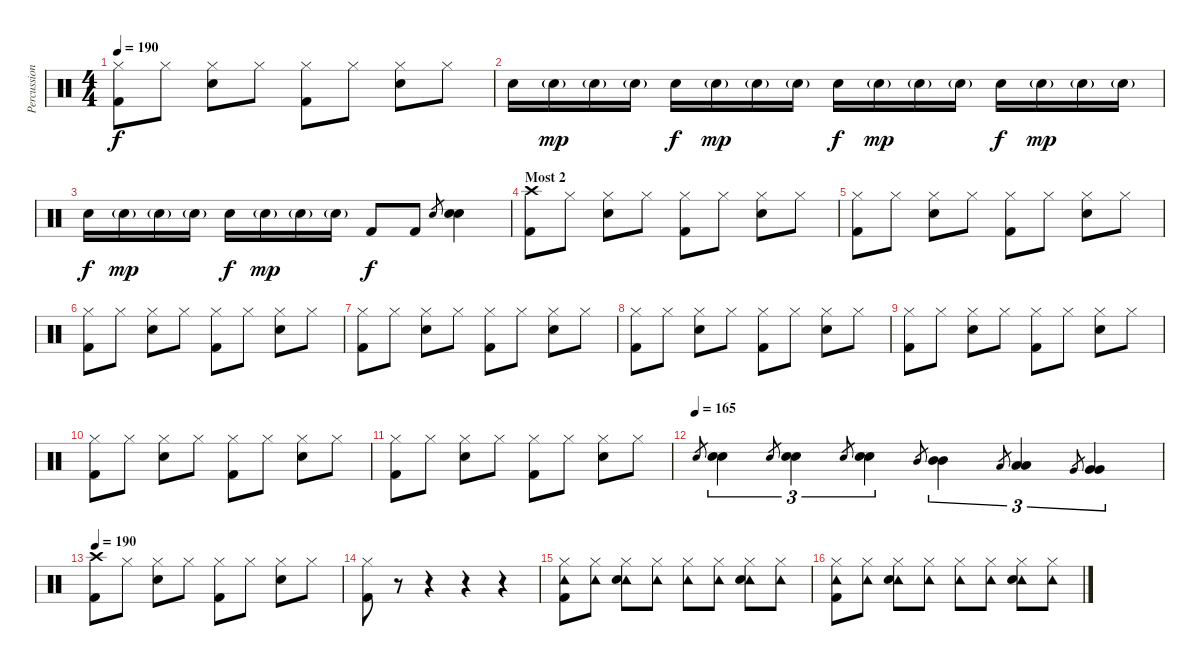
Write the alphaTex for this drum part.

\track ("Percussion" "Percussion") {instrument percussion}
\staff {score}
\articulation defaults
\ts (4 4)
\tempo 190
\clef neutral
\ks c
("Hi-Hat (closed)" "Kick (hit) 2").8{dy f} "Hi-Hat (closed)".8 ("Hi-Hat (closed)" "Electric Snare (hit)").8 "Hi-Hat (closed)".8 ("Hi-Hat (closed)" "Kick (hit) 2").8 "Hi-Hat (closed)".8 ("Hi-Hat (closed)" "Electric Snare (hit)").8 "Hi-Hat (closed)".8 |
"Electric Snare (hit)".16 "Electric Snare (hit)"{g}.16{dy mp} "Electric Snare (hit)"{g}.16 "Electric Snare (hit)"{g}.16 "Electric Snare (hit)".16{dy f} "Electric Snare (hit)"{g}.16{dy mp} "Electric Snare (hit)"{g}.16 "Electric Snare (hit)"{g}.16 "Electric Snare (hit)".16{dy f} "Electric Snare (hit)"{g}.16{dy mp} "Electric Snare (hit)"{g}.16 "Electric Snare (hit)"{g}.16 "Electric Snare (hit)".16{dy f} "Electric Snare (hit)"{g}.16{dy mp} "Electric Snare (hit)"{g}.16 "Electric Snare (hit)"{g}.16 |
"Electric Snare (hit)".16{dy f} "Electric Snare (hit)"{g}.16{dy mp} "Electric Snare (hit)"{g}.16 "Electric Snare (hit)"{g}.16 "Electric Snare (hit)".16{dy f} "Electric Snare (hit)"{g}.16{dy mp} "Electric Snare (hit)"{g}.16 "Electric Snare (hit)"{g}.16 "Kick (hit) 2".8{dy f} "Kick (hit) 2".8 "Electric Snare (hit)".8{gr} ("Electric Snare (hit)" "Electric Snare (hit)").4 |
\section ("" "Most 2")
("Crash high (hit)" "Kick (hit) 2").8 "Hi-Hat (closed)".8 ("Hi-Hat (closed)" "Electric Snare (hit)").8 "Hi-Hat (closed)".8 ("Hi-Hat (closed)" "Kick (hit) 2").8 "Hi-Hat (closed)".8 ("Hi-Hat (closed)" "Electric Snare (hit)").8 "Hi-Hat (closed)".8 |
("Hi-Hat (closed)" "Kick (hit) 2").8 "Hi-Hat (closed)".8 ("Hi-Hat (closed)" "Electric Snare (hit)").8 "Hi-Hat (closed)".8 ("Hi-Hat (closed)" "Kick (hit) 2").8 "Hi-Hat (closed)".8 ("Hi-Hat (closed)" "Electric Snare (hit)").8 "Hi-Hat (closed)".8 |
("Hi-Hat (closed)" "Kick (hit) 2").8 "Hi-Hat (closed)".8 ("Hi-Hat (closed)" "Electric Snare (hit)").8 "Hi-Hat (closed)".8 ("Hi-Hat (closed)" "Kick (hit) 2").8 "Hi-Hat (closed)".8 ("Hi-Hat (closed)" "Electric Snare (hit)").8 "Hi-Hat (closed)".8 |
("Hi-Hat (closed)" "Kick (hit) 2").8 "Hi-Hat (closed)".8 ("Hi-Hat (closed)" "Electric Snare (hit)").8 "Hi-Hat (closed)".8 ("Hi-Hat (closed)" "Kick (hit) 2").8 "Hi-Hat (closed)".8 ("Hi-Hat (closed)" "Electric Snare (hit)").8 "Hi-Hat (closed)".8 |
("Hi-Hat (closed)" "Kick (hit) 2").8 "Hi-Hat (closed)".8 ("Hi-Hat (closed)" "Electric Snare (hit)").8 "Hi-Hat (closed)".8 ("Hi-Hat (closed)" "Kick (hit) 2").8 "Hi-Hat (closed)".8 ("Hi-Hat (closed)" "Electric Snare (hit)").8 "Hi-Hat (closed)".8 |
("Hi-Hat (closed)" "Kick (hit) 2").8 "Hi-Hat (closed)".8 ("Hi-Hat (closed)" "Electric Snare (hit)").8 "Hi-Hat (closed)".8 ("Hi-Hat (closed)" "Kick (hit) 2").8 "Hi-Hat (closed)".8 ("Hi-Hat (closed)" "Electric Snare (hit)").8 "Hi-Hat (closed)".8 |
("Hi-Hat (closed)" "Kick (hit) 2").8 "Hi-Hat (closed)".8 ("Hi-Hat (closed)" "Electric Snare (hit)").8 "Hi-Hat (closed)".8 ("Hi-Hat (closed)" "Kick (hit) 2").8 "Hi-Hat (closed)".8 ("Hi-Hat (closed)" "Electric Snare (hit)").8 "Hi-Hat (closed)".8 |
("Hi-Hat (closed)" "Kick (hit) 2").8 "Hi-Hat (closed)".8 ("Hi-Hat (closed)" "Electric Snare (hit)").8 "Hi-Hat (closed)".8 ("Hi-Hat (closed)" "Kick (hit) 2").8 "Hi-Hat (closed)".8 ("Hi-Hat (closed)" "Electric Snare (hit)").8 "Hi-Hat (closed)".8 |
\tempo (165)
"Electric Snare (hit)".8{gr} ("Electric Snare (hit)" "Electric Snare (hit)").4{tu (3 2)} "Electric Snare (hit)".8{gr} ("Electric Snare (hit)" "Electric Snare (hit)").4{tu (3 2)} "Electric Snare (hit)".8{gr} ("Electric Snare (hit)" "Electric Snare (hit)").4{tu (3 2)} "Mid Tom (hit)".8{gr} ("Mid Tom (hit)" "Mid Tom (hit)").4{tu (3 2)} "Low Tom (hit)".8{gr} ("Low Tom (hit)" "Low Tom (hit)").4{tu (3 2)} "Very Low Tom (hit)".8{gr} ("Very Low Tom (hit)" "Very Low Tom (hit)").4{tu (3 2)} |
\tempo 190
("Crash high (hit)" "Kick (hit) 2").8 "Hi-Hat (closed)".8 ("Hi-Hat (closed)" "Electric Snare (hit)").8 "Hi-Hat (closed)".8 ("Hi-Hat (closed)" "Kick (hit) 2").8 "Hi-Hat (closed)".8 ("Hi-Hat (closed)" "Electric Snare (hit)").8 "Hi-Hat (closed)".8 |
("Hi-Hat (closed)" "Kick (hit) 2").8 r.8 r.4 r.4 r.4 |
("Hi-Hat (closed)" "Tambourine (hit)" "Kick (hit) 2").8 ("Hi-Hat (closed)" "Tambourine (hit)").8 ("Hi-Hat (closed)" "Tambourine (hit)" "Electric Snare (hit)").8 ("Hi-Hat (closed)" "Tambourine (hit)").8 ("Hi-Hat (closed)" "Tambourine (hit)").8 ("Hi-Hat (closed)" "Tambourine (hit)").8 ("Hi-Hat (closed)" "Tambourine (hit)" "Electric Snare (hit)").8 ("Hi-Hat (closed)" "Tambourine (hit)").8 |
("Hi-Hat (closed)" "Tambourine (hit)" "Kick (hit) 2").8 ("Hi-Hat (closed)" "Tambourine (hit)").8 ("Hi-Hat (closed)" "Tambourine (hit)" "Electric Snare (hit)").8 ("Hi-Hat (closed)" "Tambourine (hit)").8 ("Hi-Hat (closed)" "Tambourine (hit)").8 ("Hi-Hat (closed)" "Tambourine (hit)").8 ("Hi-Hat (closed)" "Tambourine (hit)" "Electric Snare (hit)").8 ("Hi-Hat (closed)" "Tambourine (hit)").8
